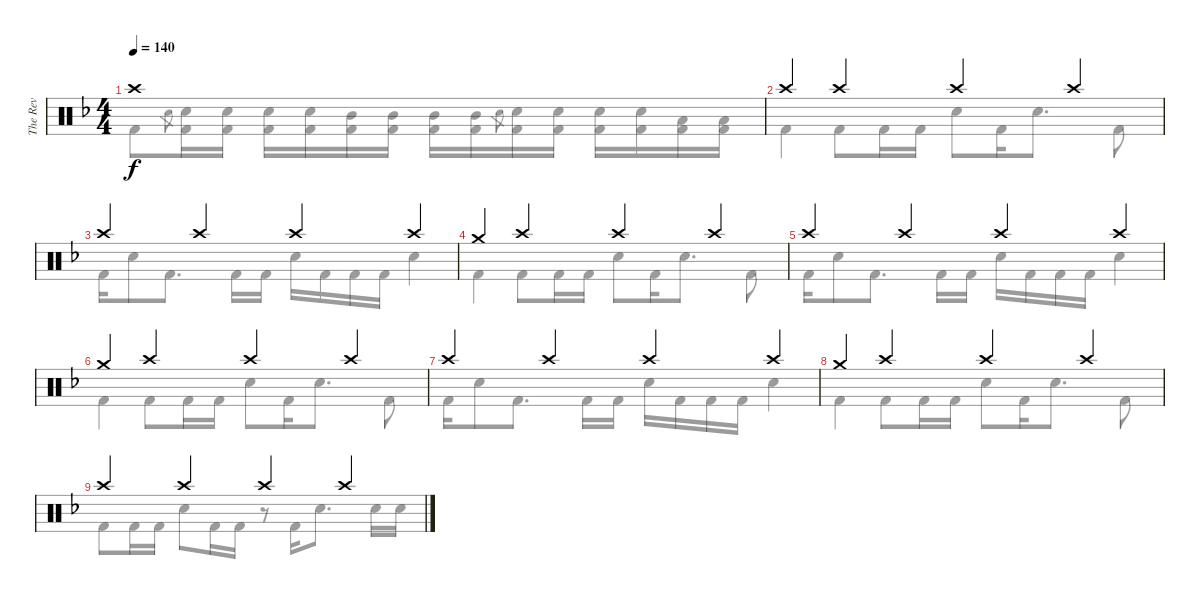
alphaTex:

\track ("The Rev" "The Rev") {instrument percussion}
\staff {score}
\articulation defaults
\voice
\ts (4 4)
\tempo 140
\clef neutral
\ks dminor "Crash high (hit)".1{dy f}
|
"Crash high (hit)".4 "Crash high (hit)".4 "Crash high (hit)".4 "Crash high (hit)".4 |
"Crash high (hit)".4 "Crash high (hit)".4 "Crash high (hit)".4 "Crash high (hit)".4 |
"Crash medium (hit)".4 "Crash high (hit)".4 "Crash high (hit)".4 "Crash high (hit)".4 |
"Crash high (hit)".4 "Crash high (hit)".4 "Crash high (hit)".4 "Crash high (hit)".4 |
"Crash medium (hit)".4 "Crash high (hit)".4 "Crash high (hit)".4 "Crash high (hit)".4 |
"Crash high (hit)".4 "Crash high (hit)".4 "Crash high (hit)".4 "Crash high (hit)".4 |
"Crash medium (hit)".4 "Crash high (hit)".4 "Crash high (hit)".4 "Crash high (hit)".4 |
"Crash high (hit)".4 "Crash high (hit)".4 "Crash high (hit)".4 "Crash high (hit)".4
\voice
\clef neutral
\ottava regular
\simile none
\ks dminor "Kick (hit) 2".8{dy f} "Electric Snare (hit)".8{gr}
("Electric Snare (hit)" "Kick (hit) 2").16 ("Electric Snare (hit)" "Kick (hit) 2").16 ("Electric Snare (hit)" "Kick (hit) 2").16 ("Electric Snare (hit)" "Kick (hit) 2").16 ("Mid Tom (hit)" "Kick (hit) 2").16 ("Mid Tom (hit)" "Kick (hit) 2").16 ("Mid Tom (hit)" "Kick (hit) 2").16 ("Mid Tom (hit)" "Kick (hit) 2").16 "Electric Snare (hit)".8{gr} ("Electric Snare (hit)" "Kick (hit) 2").16 ("Electric Snare (hit)" "Kick (hit) 2").16 ("Electric Snare (hit)" "Kick (hit) 2").16 ("Electric Snare (hit)" "Kick (hit) 2").16 ("Low Tom (hit)" "Kick (hit) 2").16 ("Low Tom (hit)" "Kick (hit) 2").16 |
"Kick (hit) 2".4 "Kick (hit) 2".8 "Kick (hit) 2".16 "Kick (hit) 2".16 "Electric Snare (hit)".8 "Kick (hit) 2".16 "Electric Snare (hit)".8{d} "Kick (hit) 2".8 |
"Kick (hit) 2".16 "Electric Snare (hit)".8 "Kick (hit) 2".8{d} "Kick (hit) 2".16 "Kick (hit) 2".16 "Electric Snare (hit)".16 "Kick (hit) 2".16 "Kick (hit) 2".16 "Kick (hit) 2".16 "Electric Snare (hit)".4 |
"Kick (hit) 2".4 "Kick (hit) 2".8 "Kick (hit) 2".16 "Kick (hit) 2".16 "Electric Snare (hit)".8 "Kick (hit) 2".16 "Electric Snare (hit)".8{d} "Kick (hit) 2".8 |
"Kick (hit) 2".16 "Electric Snare (hit)".8 "Kick (hit) 2".8{d} "Kick (hit) 2".16 "Kick (hit) 2".16 "Electric Snare (hit)".16 "Kick (hit) 2".16 "Kick (hit) 2".16 "Kick (hit) 2".16 "Electric Snare (hit)".4 |
"Kick (hit) 2".4 "Kick (hit) 2".8 "Kick (hit) 2".16 "Kick (hit) 2".16 "Electric Snare (hit)".8 "Kick (hit) 2".16 "Electric Snare (hit)".8{d} "Kick (hit) 2".8 |
"Kick (hit) 2".16 "Electric Snare (hit)".8 "Kick (hit) 2".8{d} "Kick (hit) 2".16 "Kick (hit) 2".16 "Electric Snare (hit)".16 "Kick (hit) 2".16 "Kick (hit) 2".16 "Kick (hit) 2".16 "Electric Snare (hit)".4 |
"Kick (hit) 2".4 "Kick (hit) 2".8 "Kick (hit) 2".16 "Kick (hit) 2".16 "Electric Snare (hit)".8 "Kick (hit) 2".16 "Electric Snare (hit)".8{d} "Kick (hit) 2".8 |
"Kick (hit) 2".8 "Kick (hit) 2".16 "Kick (hit) 2".16 "Electric Snare (hit)".8 "Kick (hit) 2".16 "Kick (hit) 2".16 r.8 "Kick (hit) 2".16 "Electric Snare (hit)".8{d} "Electric Snare (hit)".16 "Electric Snare (hit)".16
